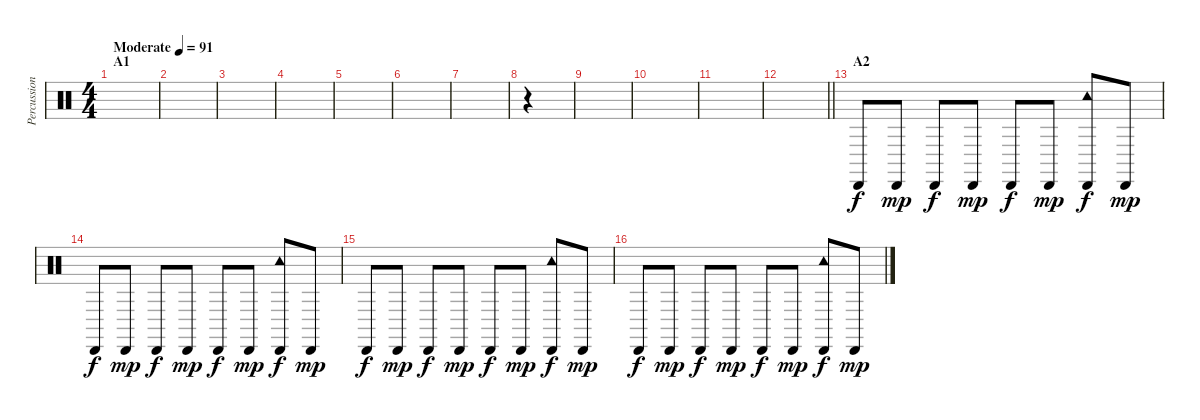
\track ("Percussion" "Percussion") {instrument percussion}
\staff {score}
\articulation defaults
\ts (4 4)
\section ("" "A1")
\tempo (91 "Moderate")
\clef neutral
\ks c
|
|
|
|
|
|
|
r.4 |
|
|
|
\barLineRight lightlight
|
\section ("" "A2")
"Cabasa (hit)".8 "Cabasa (hit)".8{dy mp} "Cabasa (hit)".8{dy f} "Cabasa (hit)".8{dy mp} "Cabasa (hit)".8{dy f} "Cabasa (hit)".8{dy mp} ("Cabasa (hit)" "Tambourine (hit)").8{dy f} "Cabasa (hit)".8{dy mp} |
"Cabasa (hit)".8{dy f} "Cabasa (hit)".8{dy mp} "Cabasa (hit)".8{dy f} "Cabasa (hit)".8{dy mp} "Cabasa (hit)".8{dy f} "Cabasa (hit)".8{dy mp} ("Cabasa (hit)" "Tambourine (hit)").8{dy f} "Cabasa (hit)".8{dy mp} |
"Cabasa (hit)".8{dy f} "Cabasa (hit)".8{dy mp} "Cabasa (hit)".8{dy f} "Cabasa (hit)".8{dy mp} "Cabasa (hit)".8{dy f} "Cabasa (hit)".8{dy mp} ("Cabasa (hit)" "Tambourine (hit)").8{dy f} "Cabasa (hit)".8{dy mp} |
"Cabasa (hit)".8{dy f} "Cabasa (hit)".8{dy mp} "Cabasa (hit)".8{dy f} "Cabasa (hit)".8{dy mp} "Cabasa (hit)".8{dy f} "Cabasa (hit)".8{dy mp} ("Cabasa (hit)" "Tambourine (hit)").8{dy f} "Cabasa (hit)".8{dy mp}
